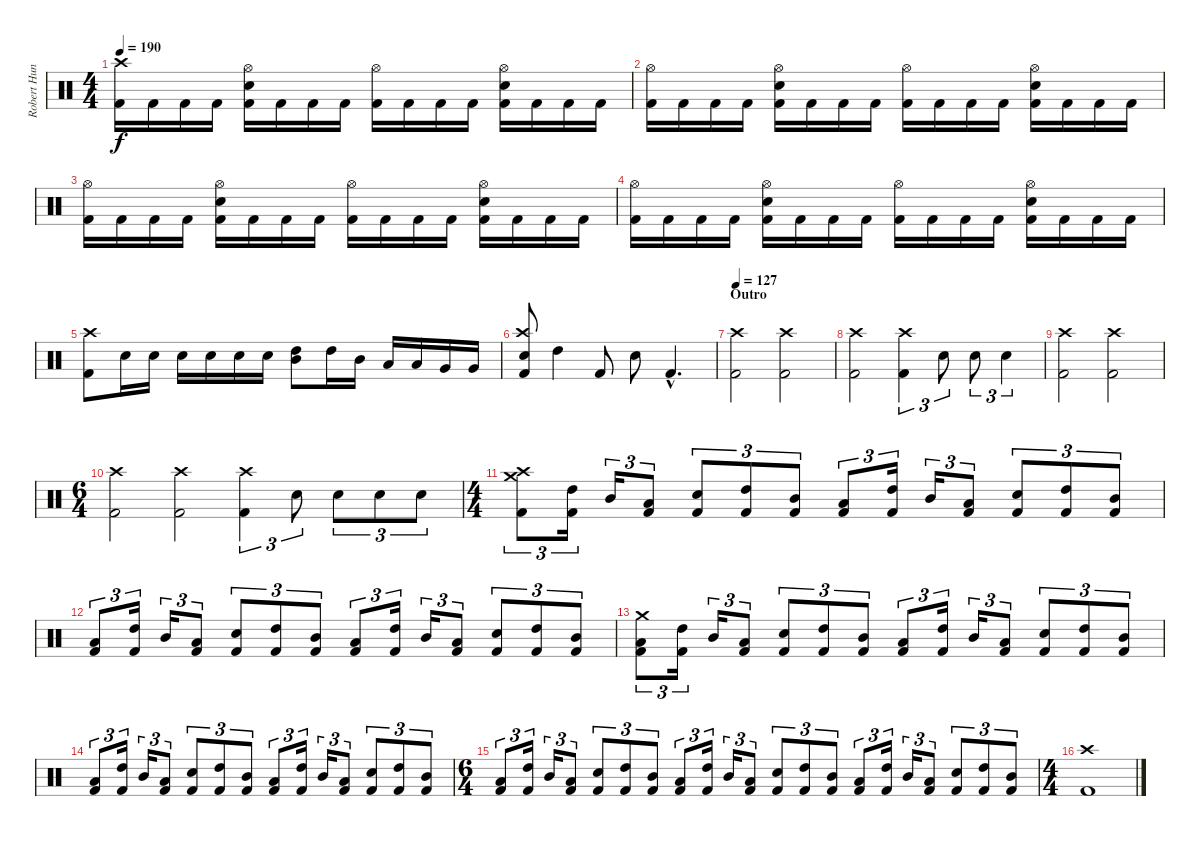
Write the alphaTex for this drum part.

\track ("Robert Hunecke" "Robert Hun") {instrument percussion}
\staff {score}
\articulation defaults
\ts (4 4)
\tempo 190
\clef neutral
\ks c
("Kick (hit) 2" "Crash high (hit)").16{dy f} "Kick (hit) 2".16 "Kick (hit) 2".16 "Kick (hit) 2".16 ("Kick (hit) 2" "Electric Snare (hit)" "Hi-Hat (open)").16 "Kick (hit) 2".16 "Kick (hit) 2".16 "Kick (hit) 2".16 ("Kick (hit) 2" "Hi-Hat (open)").16 "Kick (hit) 2".16 "Kick (hit) 2".16 "Kick (hit) 2".16 ("Kick (hit) 2" "Electric Snare (hit)" "Hi-Hat (open)").16 "Kick (hit) 2".16 "Kick (hit) 2".16 "Kick (hit) 2".16 |
("Kick (hit) 2" "Hi-Hat (open)").16 "Kick (hit) 2".16 "Kick (hit) 2".16 "Kick (hit) 2".16 ("Kick (hit) 2" "Electric Snare (hit)" "Hi-Hat (open)").16 "Kick (hit) 2".16 "Kick (hit) 2".16 "Kick (hit) 2".16 ("Kick (hit) 2" "Hi-Hat (open)").16 "Kick (hit) 2".16 "Kick (hit) 2".16 "Kick (hit) 2".16 ("Kick (hit) 2" "Electric Snare (hit)" "Hi-Hat (open)").16 "Kick (hit) 2".16 "Kick (hit) 2".16 "Kick (hit) 2".16 |
("Kick (hit) 2" "Hi-Hat (open)").16 "Kick (hit) 2".16 "Kick (hit) 2".16 "Kick (hit) 2".16 ("Kick (hit) 2" "Electric Snare (hit)" "Hi-Hat (open)").16 "Kick (hit) 2".16 "Kick (hit) 2".16 "Kick (hit) 2".16 ("Kick (hit) 2" "Hi-Hat (open)").16 "Kick (hit) 2".16 "Kick (hit) 2".16 "Kick (hit) 2".16 ("Kick (hit) 2" "Electric Snare (hit)" "Hi-Hat (open)").16 "Kick (hit) 2".16 "Kick (hit) 2".16 "Kick (hit) 2".16 |
("Kick (hit) 2" "Hi-Hat (open)").16 "Kick (hit) 2".16 "Kick (hit) 2".16 "Kick (hit) 2".16 ("Kick (hit) 2" "Electric Snare (hit)" "Hi-Hat (open)").16 "Kick (hit) 2".16 "Kick (hit) 2".16 "Kick (hit) 2".16 ("Kick (hit) 2" "Hi-Hat (open)").16 "Kick (hit) 2".16 "Kick (hit) 2".16 "Kick (hit) 2".16 ("Kick (hit) 2" "Electric Snare (hit)" "Hi-Hat (open)").16 "Kick (hit) 2".16 "Kick (hit) 2".16 "Kick (hit) 2".16 |
("Kick (hit) 2" "Crash high (hit)").8 "Electric Snare (hit)".16 "Electric Snare (hit)".16 "Electric Snare (hit)".16 "Electric Snare (hit)".16 "Electric Snare (hit)".16 "Electric Snare (hit)".16 ("High Tom (hit)" "Mid Tom (hit)").8 "High Tom (hit)".16 "Mid Tom (hit)".16 "Low Tom (hit)".16 "Low Tom (hit)".16 "Very Low Tom (hit)".16 "Very Low Tom (hit)".16 |
("Kick (hit) 2" "Electric Snare (hit)" "Crash high (hit)").8 "High Tom (hit)".4 "Kick (hit) 2".8 "Electric Snare (hit)".8 "Kick (hit) 2"{hac}.4{d} |
\section ("" "Outro")
\tempo 127
("Kick (hit) 2" "Crash high (hit)").2 ("Kick (hit) 2" "Crash high (hit)").2 |
("Kick (hit) 2" "Crash high (hit)").2 ("Kick (hit) 2" "Crash high (hit)").4{tu (3 2)} "Electric Snare (hit)".8{tu (3 2)} "Electric Snare (hit)".8{tu (3 2)} "Electric Snare (hit)".4{tu (3 2)} |
("Kick (hit) 2" "Crash high (hit)").2 ("Kick (hit) 2" "Crash high (hit)").2 |
\ts (6 4)
("Kick (hit) 2" "Crash high (hit)").2 ("Kick (hit) 2" "Crash high (hit)").2 ("Kick (hit) 2" "Crash high (hit)").4{tu (3 2)} "Electric Snare (hit)".8{tu (3 2)} "Electric Snare (hit)".8{tu (3 2)} "Electric Snare (hit)".8{tu (3 2)} "Electric Snare (hit)".8{tu (3 2)} |
\ts (4 4)
("Kick (hit) 2" "Crash high (hit)" "Crash medium (hit)").8{tu (3 2)} ("Kick (hit) 2" "High Tom (hit)").16{tu (3 2)} "Mid Tom (hit)".16{tu (3 2)} ("Kick (hit) 2" "Low Tom (hit)").8{tu (3 2)} ("Kick (hit) 2" "Electric Snare (hit)").8{tu (3 2)} ("Kick (hit) 2" "High Tom (hit)").8{tu (3 2)} ("Kick (hit) 2" "Mid Tom (hit)").8{tu (3 2)} ("Kick (hit) 2" "Low Tom (hit)").8{tu (3 2)} ("Kick (hit) 2" "High Tom (hit)").16{tu (3 2)} "Mid Tom (hit)".16{tu (3 2)} ("Kick (hit) 2" "Low Tom (hit)").8{tu (3 2)} ("Kick (hit) 2" "Electric Snare (hit)").8{tu (3 2)} ("Kick (hit) 2" "High Tom (hit)").8{tu (3 2)} ("Kick (hit) 2" "Mid Tom (hit)").8{tu (3 2)} |
("Kick (hit) 2" "Low Tom (hit)").8{tu (3 2)} ("Kick (hit) 2" "High Tom (hit)").16{tu (3 2)} "Mid Tom (hit)".16{tu (3 2)} ("Kick (hit) 2" "Low Tom (hit)").8{tu (3 2)} ("Kick (hit) 2" "Electric Snare (hit)").8{tu (3 2)} ("Kick (hit) 2" "High Tom (hit)").8{tu (3 2)} ("Kick (hit) 2" "Mid Tom (hit)").8{tu (3 2)} ("Kick (hit) 2" "Low Tom (hit)").8{tu (3 2)} ("Kick (hit) 2" "High Tom (hit)").16{tu (3 2)} "Mid Tom (hit)".16{tu (3 2)} ("Kick (hit) 2" "Low Tom (hit)").8{tu (3 2)} ("Kick (hit) 2" "Electric Snare (hit)").8{tu (3 2)} ("Kick (hit) 2" "High Tom (hit)").8{tu (3 2)} ("Kick (hit) 2" "Mid Tom (hit)").8{tu (3 2)} |
("Kick (hit) 2" "Low Tom (hit)" "Crash medium (hit)").8{tu (3 2)} ("Kick (hit) 2" "High Tom (hit)").16{tu (3 2)} "Mid Tom (hit)".16{tu (3 2)} ("Kick (hit) 2" "Low Tom (hit)").8{tu (3 2)} ("Kick (hit) 2" "Electric Snare (hit)").8{tu (3 2)} ("Kick (hit) 2" "High Tom (hit)").8{tu (3 2)} ("Kick (hit) 2" "Mid Tom (hit)").8{tu (3 2)} ("Kick (hit) 2" "Low Tom (hit)").8{tu (3 2)} ("Kick (hit) 2" "High Tom (hit)").16{tu (3 2)} "Mid Tom (hit)".16{tu (3 2)} ("Kick (hit) 2" "Low Tom (hit)").8{tu (3 2)} ("Kick (hit) 2" "Electric Snare (hit)").8{tu (3 2)} ("Kick (hit) 2" "High Tom (hit)").8{tu (3 2)} ("Kick (hit) 2" "Mid Tom (hit)").8{tu (3 2)} |
("Kick (hit) 2" "Low Tom (hit)").8{tu (3 2)} ("Kick (hit) 2" "High Tom (hit)").16{tu (3 2)} "Mid Tom (hit)".16{tu (3 2)} ("Kick (hit) 2" "Low Tom (hit)").8{tu (3 2)} ("Kick (hit) 2" "Electric Snare (hit)").8{tu (3 2)} ("Kick (hit) 2" "High Tom (hit)").8{tu (3 2)} ("Kick (hit) 2" "Mid Tom (hit)").8{tu (3 2)} ("Kick (hit) 2" "Low Tom (hit)").8{tu (3 2)} ("Kick (hit) 2" "High Tom (hit)").16{tu (3 2)} "Mid Tom (hit)".16{tu (3 2)} ("Kick (hit) 2" "Low Tom (hit)").8{tu (3 2)} ("Kick (hit) 2" "Electric Snare (hit)").8{tu (3 2)} ("Kick (hit) 2" "High Tom (hit)").8{tu (3 2)} ("Kick (hit) 2" "Mid Tom (hit)").8{tu (3 2)} |
\ts (6 4)
("Kick (hit) 2" "Low Tom (hit)").8{tu (3 2)} ("Kick (hit) 2" "High Tom (hit)").16{tu (3 2)} "Mid Tom (hit)".16{tu (3 2)} ("Kick (hit) 2" "Low Tom (hit)").8{tu (3 2)} ("Kick (hit) 2" "Electric Snare (hit)").8{tu (3 2)} ("Kick (hit) 2" "High Tom (hit)").8{tu (3 2)} ("Kick (hit) 2" "Mid Tom (hit)").8{tu (3 2)} ("Kick (hit) 2" "Low Tom (hit)").8{tu (3 2)} ("Kick (hit) 2" "High Tom (hit)").16{tu (3 2)} "Mid Tom (hit)".16{tu (3 2)} ("Kick (hit) 2" "Low Tom (hit)").8{tu (3 2)} ("Kick (hit) 2" "Electric Snare (hit)").8{tu (3 2)} ("Kick (hit) 2" "High Tom (hit)").8{tu (3 2)} ("Kick (hit) 2" "Mid Tom (hit)").8{tu (3 2)} ("Kick (hit) 2" "Low Tom (hit)").8{tu (3 2)} ("Kick (hit) 2" "High Tom (hit)").16{tu (3 2)} "Mid Tom (hit)".16{tu (3 2)} ("Kick (hit) 2" "Low Tom (hit)").8{tu (3 2)} ("Kick (hit) 2" "Electric Snare (hit)").8{tu (3 2)} ("Kick (hit) 2" "High Tom (hit)").8{tu (3 2)} ("Kick (hit) 2" "Mid Tom (hit)").8{tu (3 2)} |
\ts (4 4)
("Kick (hit) 2" "Crash high (hit)").1
